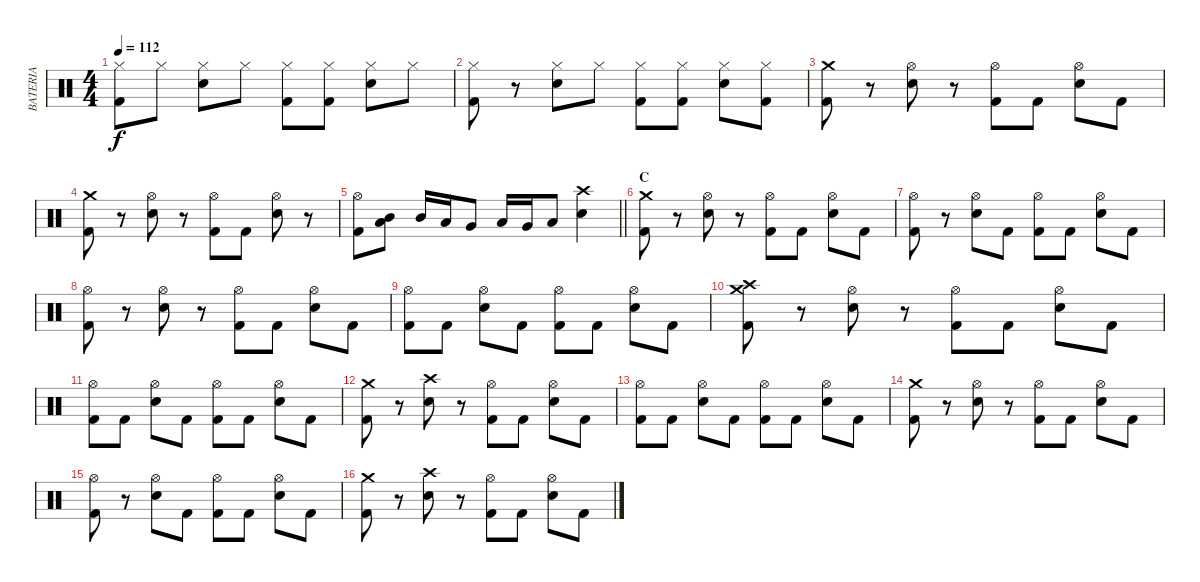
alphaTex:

\track ("BATERIA" "BATERIA") {instrument percussion}
\staff {score}
\articulation defaults
\ts (4 4)
\tempo 112
\clef neutral
\ks c
("Kick (hit) 2" "Hi-Hat (closed)").8{dy f} "Hi-Hat (closed)".8 ("Hi-Hat (closed)" "Electric Snare (hit)").8 "Hi-Hat (closed)".8 ("Kick (hit) 2" "Hi-Hat (closed)").8 ("Kick (hit) 2" "Hi-Hat (closed)").8 ("Hi-Hat (closed)" "Electric Snare (hit)").8 "Hi-Hat (closed)".8 |
("Kick (hit) 2" "Hi-Hat (closed)").8 r.8 ("Hi-Hat (closed)" "Electric Snare (hit)").8 "Hi-Hat (closed)".8 ("Kick (hit) 2" "Hi-Hat (closed)").8 ("Kick (hit) 2" "Hi-Hat (closed)").8 ("Hi-Hat (closed)" "Electric Snare (hit)").8 ("Kick (hit) 2" "Hi-Hat (closed)").8 |
("Kick (hit) 2" "Crash medium (hit)").8 r.8 ("Hi-Hat (open)" "Electric Snare (hit)").8 r.8 ("Kick (hit) 2" "Hi-Hat (open)").8 "Kick (hit) 2".8 ("Hi-Hat (open)" "Electric Snare (hit)").8 "Kick (hit) 2".8 |
("Kick (hit) 2" "Crash medium (hit)").8 r.8 ("Hi-Hat (open)" "Electric Snare (hit)").8 r.8 ("Kick (hit) 2" "Hi-Hat (open)").8 "Kick (hit) 2".8 ("Hi-Hat (open)" "Electric Snare (hit)").8 r.8 |
\barLineRight lightlight
("Kick (hit) 2" "Hi-Hat (open)").8 ("Low Floor Tom (hit)" "Mid Tom (hit)").8 "Mid Tom (hit)".16 "Low Tom (hit)".16 "Very Low Tom (hit)".8 "Low Tom (hit)".16 "Very Low Tom (hit)".16 "Low Floor Tom (hit)".8 ("Electric Snare (hit)" "Crash high (hit)").4 |
\section ("" "C")
("Kick (hit) 2" "Crash medium (hit)").8 r.8 ("Hi-Hat (open)" "Electric Snare (hit)").8 r.8 ("Kick (hit) 2" "Hi-Hat (open)").8 "Kick (hit) 2".8 ("Hi-Hat (open)" "Electric Snare (hit)").8 "Kick (hit) 2".8 |
("Kick (hit) 2" "Hi-Hat (open)").8 r.8 ("Hi-Hat (open)" "Electric Snare (hit)").8 "Kick (hit) 2".8 ("Kick (hit) 2" "Hi-Hat (open)").8 "Kick (hit) 2".8 ("Hi-Hat (open)" "Electric Snare (hit)").8 "Kick (hit) 2".8 |
("Kick (hit) 2" "Hi-Hat (open)").8 r.8 ("Hi-Hat (open)" "Electric Snare (hit)").8 r.8 ("Kick (hit) 2" "Hi-Hat (open)").8 "Kick (hit) 2".8 ("Hi-Hat (open)" "Electric Snare (hit)").8 "Kick (hit) 2".8 |
("Kick (hit) 2" "Hi-Hat (open)").8 "Kick (hit) 2".8 ("Hi-Hat (open)" "Electric Snare (hit)").8 "Kick (hit) 2".8 ("Kick (hit) 2" "Hi-Hat (open)").8 "Kick (hit) 2".8 ("Hi-Hat (open)" "Electric Snare (hit)").8 "Kick (hit) 2".8 |
("Kick (hit) 2" "Crash high (hit)" "Crash medium (hit)").8 r.8 ("Hi-Hat (open)" "Electric Snare (hit)").8 r.8 ("Kick (hit) 2" "Hi-Hat (open)").8 "Kick (hit) 2".8 ("Hi-Hat (open)" "Electric Snare (hit)").8 "Kick (hit) 2".8 |
("Kick (hit) 2" "Hi-Hat (open)").8 "Kick (hit) 2".8 ("Hi-Hat (open)" "Electric Snare (hit)").8 "Kick (hit) 2".8 ("Kick (hit) 2" "Hi-Hat (open)").8 "Kick (hit) 2".8 ("Hi-Hat (open)" "Electric Snare (hit)").8 "Kick (hit) 2".8 |
("Kick (hit) 2" "Crash medium (hit)").8 r.8 ("Electric Snare (hit)" "Crash high (hit)").8 r.8 ("Kick (hit) 2" "Hi-Hat (open)").8 "Kick (hit) 2".8 ("Hi-Hat (open)" "Electric Snare (hit)").8 "Kick (hit) 2".8 |
("Kick (hit) 2" "Hi-Hat (open)").8 "Kick (hit) 2".8 ("Hi-Hat (open)" "Electric Snare (hit)").8 "Kick (hit) 2".8 ("Kick (hit) 2" "Hi-Hat (open)").8 "Kick (hit) 2".8 ("Hi-Hat (open)" "Electric Snare (hit)").8 "Kick (hit) 2".8 |
("Kick (hit) 2" "Crash medium (hit)").8 r.8 ("Hi-Hat (open)" "Electric Snare (hit)").8 r.8 ("Kick (hit) 2" "Hi-Hat (open)").8 "Kick (hit) 2".8 ("Hi-Hat (open)" "Electric Snare (hit)").8 "Kick (hit) 2".8 |
("Kick (hit) 2" "Hi-Hat (open)").8 r.8 ("Hi-Hat (open)" "Electric Snare (hit)").8 "Kick (hit) 2".8 ("Kick (hit) 2" "Hi-Hat (open)").8 "Kick (hit) 2".8 ("Hi-Hat (open)" "Electric Snare (hit)").8 "Kick (hit) 2".8 |
("Kick (hit) 2" "Crash medium (hit)").8 r.8 ("Electric Snare (hit)" "Crash high (hit)").8 r.8 ("Kick (hit) 2" "Hi-Hat (open)").8 "Kick (hit) 2".8 ("Hi-Hat (open)" "Electric Snare (hit)").8 "Kick (hit) 2".8
